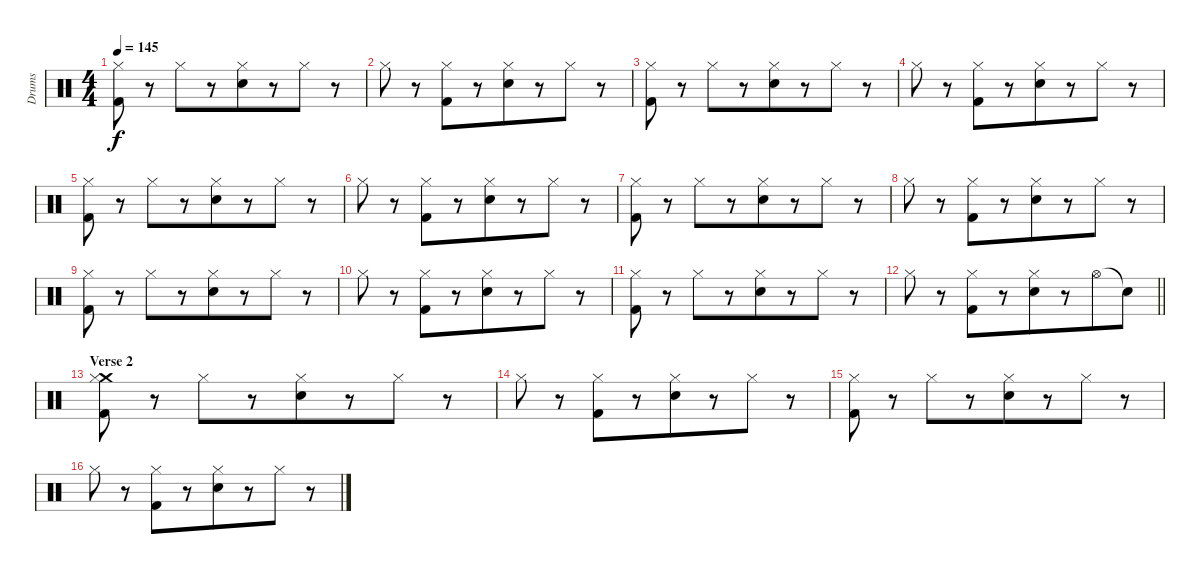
\track ("Drums" "Drums") {instrument percussion bank 245}
\staff {score}
\articulation defaults
\ts (4 4)
\tempo 145
\clef neutral
\ks c
("Kick (hit) 2" "Hi-Hat (closed)").8{dy f} r.8{beam merge} "Hi-Hat (closed)".8{beam merge} r.8 ("Electric Snare (hit)" "Hi-Hat (closed)").8{beam merge} r.8 "Hi-Hat (closed)".8{beam merge} r.8 |
"Hi-Hat (closed)".8 r.8{beam merge} ("Kick (hit) 2" "Hi-Hat (closed)").8{beam merge} r.8 ("Electric Snare (hit)" "Hi-Hat (closed)").8{beam merge} r.8 "Hi-Hat (closed)".8{beam merge} r.8 |
("Kick (hit) 2" "Hi-Hat (closed)").8 r.8{beam merge} "Hi-Hat (closed)".8{beam merge} r.8 ("Electric Snare (hit)" "Hi-Hat (closed)").8{beam merge} r.8 "Hi-Hat (closed)".8{beam merge} r.8 |
"Hi-Hat (closed)".8 r.8{beam merge} ("Kick (hit) 2" "Hi-Hat (closed)").8{beam merge} r.8 ("Electric Snare (hit)" "Hi-Hat (closed)").8{beam merge} r.8 "Hi-Hat (closed)".8{beam merge} r.8 |
("Kick (hit) 2" "Hi-Hat (closed)").8 r.8{beam merge} "Hi-Hat (closed)".8{beam merge} r.8 ("Electric Snare (hit)" "Hi-Hat (closed)").8{beam merge} r.8 "Hi-Hat (closed)".8{beam merge} r.8 |
"Hi-Hat (closed)".8 r.8{beam merge} ("Kick (hit) 2" "Hi-Hat (closed)").8{beam merge} r.8 ("Electric Snare (hit)" "Hi-Hat (closed)").8{beam merge} r.8 "Hi-Hat (closed)".8{beam merge} r.8 |
("Kick (hit) 2" "Hi-Hat (closed)").8 r.8{beam merge} "Hi-Hat (closed)".8{beam merge} r.8 ("Electric Snare (hit)" "Hi-Hat (closed)").8{beam merge} r.8 "Hi-Hat (closed)".8{beam merge} r.8 |
"Hi-Hat (closed)".8 r.8{beam merge} ("Kick (hit) 2" "Hi-Hat (closed)").8{beam merge} r.8 ("Electric Snare (hit)" "Hi-Hat (closed)").8{beam merge} r.8 "Hi-Hat (closed)".8{beam merge} r.8 |
("Kick (hit) 2" "Hi-Hat (closed)").8 r.8{beam merge} "Hi-Hat (closed)".8{beam merge} r.8 ("Electric Snare (hit)" "Hi-Hat (closed)").8{beam merge} r.8 "Hi-Hat (closed)".8{beam merge} r.8 |
"Hi-Hat (closed)".8 r.8{beam merge} ("Kick (hit) 2" "Hi-Hat (closed)").8{beam merge} r.8 ("Electric Snare (hit)" "Hi-Hat (closed)").8{beam merge} r.8 "Hi-Hat (closed)".8{beam merge} r.8 |
("Kick (hit) 2" "Hi-Hat (closed)").8 r.8{beam merge} "Hi-Hat (closed)".8{beam merge} r.8 ("Electric Snare (hit)" "Hi-Hat (closed)").8{beam merge} r.8 "Hi-Hat (closed)".8{beam merge} r.8 |
\barLineRight lightlight "Hi-Hat (closed)".8
r.8{beam merge} ("Kick (hit) 2" "Hi-Hat (closed)").8{beam merge} r.8 ("Electric Snare (hit)" "Hi-Hat (closed)").8{beam merge} r.8 "Hi-Hat (open)".8{beam merge} "Snare (hit)"{t}.8 |
\section ("" "Verse 2")
("Crash medium (hit)" "Kick (hit) 2" "Hi-Hat (closed)").8 r.8{beam merge} "Hi-Hat (closed)".8{beam merge} r.8 ("Electric Snare (hit)" "Hi-Hat (closed)").8{beam merge} r.8 "Hi-Hat (closed)".8{beam merge} r.8 |
"Hi-Hat (closed)".8 r.8{beam merge} ("Kick (hit) 2" "Hi-Hat (closed)").8{beam merge} r.8 ("Electric Snare (hit)" "Hi-Hat (closed)").8{beam merge} r.8 "Hi-Hat (closed)".8{beam merge} r.8 |
("Kick (hit) 2" "Hi-Hat (closed)").8 r.8{beam merge} "Hi-Hat (closed)".8{beam merge} r.8 ("Electric Snare (hit)" "Hi-Hat (closed)").8{beam merge} r.8 "Hi-Hat (closed)".8{beam merge} r.8 |
"Hi-Hat (closed)".8 r.8{beam merge} ("Kick (hit) 2" "Hi-Hat (closed)").8{beam merge} r.8 ("Electric Snare (hit)" "Hi-Hat (closed)").8{beam merge} r.8 "Hi-Hat (closed)".8{beam merge} r.8
